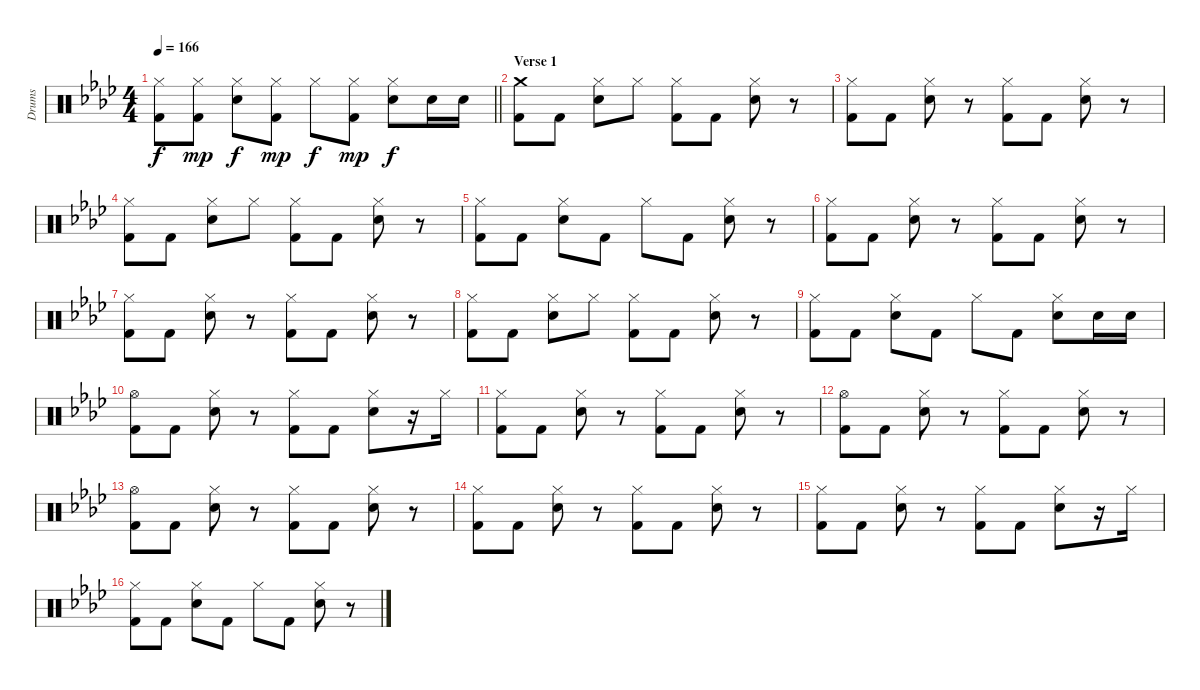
\track ("Drums" "Drums") {instrument percussion}
\staff {score}
\articulation defaults
\ts (4 4)
\tempo 166
\clef neutral
\barLineRight lightlight
\ks ab
("Hi-Hat (closed)" "Kick (hit) 2").8{dy f} ("Hi-Hat (closed)" "Kick (hit) 2").8{dy mp} ("Hi-Hat (closed)" "Electric Snare (hit)").8{dy f} ("Hi-Hat (closed)" "Kick (hit) 2").8{dy mp} "Hi-Hat (closed)".8{dy f} ("Hi-Hat (closed)" "Kick (hit) 2").8{dy mp} ("Hi-Hat (closed)" "Electric Snare (hit)").8{dy f} "Electric Snare (hit)".16 "Electric Snare (hit)".16 |
\section ("" "Verse 1")
("Crash medium (hit)" "Kick (hit) 2").8 "Kick (hit) 2".8 ("Hi-Hat (closed)" "Electric Snare (hit)").8 "Hi-Hat (closed)".8 ("Hi-Hat (closed)" "Kick (hit) 2").8 "Kick (hit) 2".8 ("Hi-Hat (closed)" "Electric Snare (hit)").8 r.8 |
("Hi-Hat (closed)" "Kick (hit) 2").8 "Kick (hit) 2".8 ("Hi-Hat (closed)" "Electric Snare (hit)").8 r.8 ("Hi-Hat (closed)" "Kick (hit) 2").8 "Kick (hit) 2".8 ("Hi-Hat (closed)" "Electric Snare (hit)").8 r.8 |
("Hi-Hat (closed)" "Kick (hit) 2").8 "Kick (hit) 2".8 ("Hi-Hat (closed)" "Electric Snare (hit)").8 "Hi-Hat (closed)".8 ("Hi-Hat (closed)" "Kick (hit) 2").8 "Kick (hit) 2".8 ("Hi-Hat (closed)" "Electric Snare (hit)").8 r.8 |
("Hi-Hat (closed)" "Kick (hit) 2").8 "Kick (hit) 2".8 ("Hi-Hat (closed)" "Electric Snare (hit)").8 "Kick (hit) 2".8 "Hi-Hat (closed)".8 "Kick (hit) 2".8 ("Hi-Hat (closed)" "Electric Snare (hit)").8 r.8 |
("Hi-Hat (closed)" "Kick (hit) 2").8 "Kick (hit) 2".8 ("Hi-Hat (closed)" "Electric Snare (hit)").8 r.8 ("Hi-Hat (closed)" "Kick (hit) 2").8 "Kick (hit) 2".8 ("Hi-Hat (closed)" "Electric Snare (hit)").8 r.8 |
("Hi-Hat (closed)" "Kick (hit) 2").8 "Kick (hit) 2".8 ("Hi-Hat (closed)" "Electric Snare (hit)").8 r.8 ("Hi-Hat (closed)" "Kick (hit) 2").8 "Kick (hit) 2".8 ("Hi-Hat (closed)" "Electric Snare (hit)").8 r.8 |
("Hi-Hat (closed)" "Kick (hit) 2").8 "Kick (hit) 2".8 ("Hi-Hat (closed)" "Electric Snare (hit)").8 "Hi-Hat (closed)".8 ("Hi-Hat (closed)" "Kick (hit) 2").8 "Kick (hit) 2".8 ("Hi-Hat (closed)" "Electric Snare (hit)").8 r.8 |
("Hi-Hat (closed)" "Kick (hit) 2").8 "Kick (hit) 2".8 ("Hi-Hat (closed)" "Electric Snare (hit)").8 "Kick (hit) 2".8 "Hi-Hat (closed)".8 "Kick (hit) 2".8 ("Hi-Hat (closed)" "Electric Snare (hit)").8 "Electric Snare (hit)".16 "Electric Snare (hit)".16 |
("Hi-Hat (open)" "Kick (hit) 2").8 "Kick (hit) 2".8 ("Hi-Hat (closed)" "Electric Snare (hit)").8 r.8 ("Hi-Hat (closed)" "Kick (hit) 2").8 "Kick (hit) 2".8 ("Hi-Hat (closed)" "Electric Snare (hit)").8 r.16 "Hi-Hat (closed)".16 |
("Hi-Hat (closed)" "Kick (hit) 2").8 "Kick (hit) 2".8 ("Hi-Hat (closed)" "Electric Snare (hit)").8 r.8 ("Hi-Hat (closed)" "Kick (hit) 2").8 "Kick (hit) 2".8 ("Hi-Hat (closed)" "Electric Snare (hit)").8 r.8 |
("Hi-Hat (open)" "Kick (hit) 2").8 "Kick (hit) 2".8 ("Hi-Hat (closed)" "Electric Snare (hit)").8 r.8 ("Hi-Hat (closed)" "Kick (hit) 2").8 "Kick (hit) 2".8 ("Hi-Hat (closed)" "Electric Snare (hit)").8 r.8 |
("Hi-Hat (open)" "Kick (hit) 2").8 "Kick (hit) 2".8 ("Hi-Hat (closed)" "Electric Snare (hit)").8 r.8 ("Hi-Hat (closed)" "Kick (hit) 2").8 "Kick (hit) 2".8 ("Hi-Hat (closed)" "Electric Snare (hit)").8 r.8 |
("Hi-Hat (closed)" "Kick (hit) 2").8 "Kick (hit) 2".8 ("Hi-Hat (closed)" "Electric Snare (hit)").8 r.8 ("Hi-Hat (closed)" "Kick (hit) 2").8 "Kick (hit) 2".8 ("Hi-Hat (closed)" "Electric Snare (hit)").8 r.8 |
("Hi-Hat (closed)" "Kick (hit) 2").8 "Kick (hit) 2".8 ("Hi-Hat (closed)" "Electric Snare (hit)").8 r.8 ("Hi-Hat (closed)" "Kick (hit) 2").8 "Kick (hit) 2".8 ("Hi-Hat (closed)" "Electric Snare (hit)").8 r.16 "Hi-Hat (closed)".16 |
("Hi-Hat (closed)" "Kick (hit) 2").8 "Kick (hit) 2".8 ("Hi-Hat (closed)" "Electric Snare (hit)").8 "Kick (hit) 2".8 "Hi-Hat (closed)".8 "Kick (hit) 2".8 ("Hi-Hat (closed)" "Electric Snare (hit)").8 r.8
